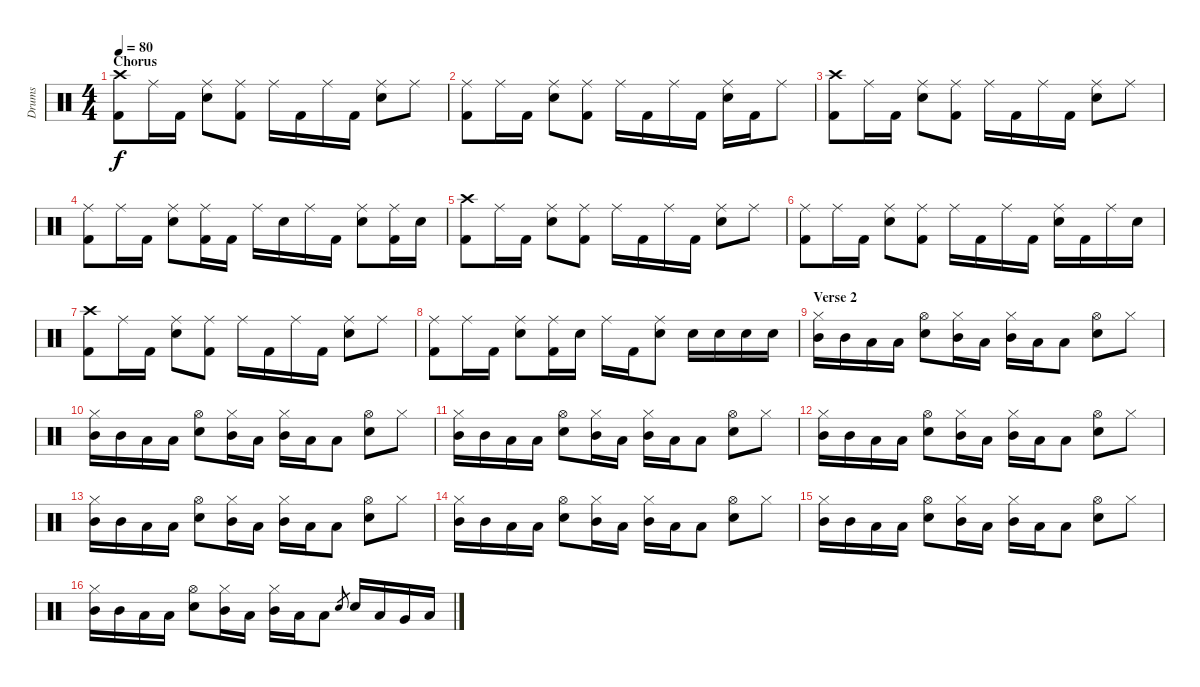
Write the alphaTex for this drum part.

\track ("Drums" "Drums") {instrument percussion}
\staff {score}
\articulation defaults
\ts (4 4)
\section ("" "Chorus")
\tempo 80
\clef neutral
\ks c
("Crash high (hit)" "Kick (hit) 2").8{dy f} "Ride (middle)".16 "Kick (hit) 2".16 ("Ride (middle)" "Snare (hit) 2").8 ("Ride (middle)" "Kick (hit) 2").8 "Ride (middle)".16 "Kick (hit) 2".16 "Ride (middle)".16 "Kick (hit) 2".16 ("Ride (middle)" "Snare (hit) 2").8 "Ride (middle)".8 |
("Ride (middle)" "Kick (hit) 2").8 "Ride (middle)".16 "Kick (hit) 2".16 ("Ride (middle)" "Snare (hit) 2").8 ("Ride (middle)" "Kick (hit) 2").8 "Ride (middle)".16 "Kick (hit) 2".16 "Ride (middle)".16 "Kick (hit) 2".16 ("Ride (middle)" "Snare (hit) 2").16 "Kick (hit) 2".16 "Ride (middle)".8 |
("Crash high (hit)" "Kick (hit) 2").8 "Ride (middle)".16 "Kick (hit) 2".16 ("Ride (middle)" "Snare (hit) 2").8 ("Ride (middle)" "Kick (hit) 2").8 "Ride (middle)".16 "Kick (hit) 2".16 "Ride (middle)".16 "Kick (hit) 2".16 ("Ride (middle)" "Snare (hit) 2").8 "Ride (middle)".8 |
("Ride (middle)" "Kick (hit) 2").8 "Ride (middle)".16 "Kick (hit) 2".16 ("Ride (middle)" "Snare (hit) 2").8 ("Ride (middle)" "Kick (hit) 2").16 "Kick (hit) 2".16 "Ride (middle)".16 "Snare (hit) 2".16 "Ride (middle)".16 "Kick (hit) 2".16 ("Ride (middle)" "Snare (hit) 2").8 ("Ride (middle)" "Kick (hit) 2").16 "Snare (hit) 2".16 |
("Crash high (hit)" "Kick (hit) 2").8 "Ride (middle)".16 "Kick (hit) 2".16 ("Ride (middle)" "Snare (hit) 2").8 ("Ride (middle)" "Kick (hit) 2").8 "Ride (middle)".16 "Kick (hit) 2".16 "Ride (middle)".16 "Kick (hit) 2".16 ("Ride (middle)" "Snare (hit) 2").8 "Ride (middle)".8 |
("Ride (middle)" "Kick (hit) 2").8 "Ride (middle)".16 "Kick (hit) 2".16 ("Ride (middle)" "Snare (hit) 2").8 ("Ride (middle)" "Kick (hit) 2").8 "Ride (middle)".16 "Kick (hit) 2".16 "Ride (middle)".16 "Kick (hit) 2".16 ("Ride (middle)" "Snare (hit) 2").16 "Kick (hit) 2".16 "Ride (middle)".16 "Snare (hit) 2".16 |
("Crash high (hit)" "Kick (hit) 2").8 "Ride (middle)".16 "Kick (hit) 2".16 ("Ride (middle)" "Snare (hit) 2").8 ("Ride (middle)" "Kick (hit) 2").8 "Ride (middle)".16 "Kick (hit) 2".16 "Ride (middle)".16 "Kick (hit) 2".16 ("Ride (middle)" "Snare (hit) 2").8 "Ride (middle)".8 |
("Ride (middle)" "Kick (hit) 2").8 "Ride (middle)".16 "Kick (hit) 2".16 ("Ride (middle)" "Snare (hit) 2").8 ("Ride (middle)" "Kick (hit) 2").16 "Snare (hit) 2".16 "Ride (middle)".16 "Kick (hit) 2".16 ("Ride (middle)" "Snare (hit) 2").8 "Snare (hit) 2".16 "Snare (hit) 2".16 "Snare (hit) 2".16 "Snare (hit) 2".16 |
\section ("" "Verse 2")
("Hi-Hat (closed)" "Mid Tom (hit)").16 "Mid Tom (hit)".16 "Low Floor Tom (hit)".16 "Low Floor Tom (hit)".16 ("Hi-Hat (open)" "Snare (hit) 2").8 ("Hi-Hat (closed)" "Mid Tom (hit)").16 "Low Floor Tom (hit)".16 ("Hi-Hat (closed)" "Mid Tom (hit)").16 "Low Floor Tom (hit)".16 "Low Floor Tom (hit)".8 ("Hi-Hat (open)" "Snare (hit) 2").8 "Hi-Hat (closed)".8 |
("Hi-Hat (closed)" "Mid Tom (hit)").16 "Mid Tom (hit)".16 "Low Floor Tom (hit)".16 "Low Floor Tom (hit)".16 ("Hi-Hat (open)" "Snare (hit) 2").8 ("Hi-Hat (closed)" "Mid Tom (hit)").16 "Low Floor Tom (hit)".16 ("Hi-Hat (closed)" "Mid Tom (hit)").16 "Low Floor Tom (hit)".16 "Low Floor Tom (hit)".8 ("Hi-Hat (open)" "Snare (hit) 2").8 "Hi-Hat (closed)".8 |
("Hi-Hat (closed)" "Mid Tom (hit)").16 "Mid Tom (hit)".16 "Low Floor Tom (hit)".16 "Low Floor Tom (hit)".16 ("Hi-Hat (open)" "Snare (hit) 2").8 ("Hi-Hat (closed)" "Mid Tom (hit)").16 "Low Floor Tom (hit)".16 ("Hi-Hat (closed)" "Mid Tom (hit)").16 "Low Floor Tom (hit)".16 "Low Floor Tom (hit)".8 ("Hi-Hat (open)" "Snare (hit) 2").8 "Hi-Hat (closed)".8 |
("Hi-Hat (closed)" "Mid Tom (hit)").16 "Mid Tom (hit)".16 "Low Floor Tom (hit)".16 "Low Floor Tom (hit)".16 ("Hi-Hat (open)" "Snare (hit) 2").8 ("Hi-Hat (closed)" "Mid Tom (hit)").16 "Low Floor Tom (hit)".16 ("Hi-Hat (closed)" "Mid Tom (hit)").16 "Low Floor Tom (hit)".16 "Low Floor Tom (hit)".8 ("Hi-Hat (open)" "Snare (hit) 2").8 "Hi-Hat (closed)".8 |
("Hi-Hat (closed)" "Mid Tom (hit)").16 "Mid Tom (hit)".16 "Low Floor Tom (hit)".16 "Low Floor Tom (hit)".16 ("Hi-Hat (open)" "Snare (hit) 2").8 ("Hi-Hat (closed)" "Mid Tom (hit)").16 "Low Floor Tom (hit)".16 ("Hi-Hat (closed)" "Mid Tom (hit)").16 "Low Floor Tom (hit)".16 "Low Floor Tom (hit)".8 ("Hi-Hat (open)" "Snare (hit) 2").8 "Hi-Hat (closed)".8 |
("Hi-Hat (closed)" "Mid Tom (hit)").16 "Mid Tom (hit)".16 "Low Floor Tom (hit)".16 "Low Floor Tom (hit)".16 ("Hi-Hat (open)" "Snare (hit) 2").8 ("Hi-Hat (closed)" "Mid Tom (hit)").16 "Low Floor Tom (hit)".16 ("Hi-Hat (closed)" "Mid Tom (hit)").16 "Low Floor Tom (hit)".16 "Low Floor Tom (hit)".8 ("Hi-Hat (open)" "Snare (hit) 2").8 "Hi-Hat (closed)".8 |
("Hi-Hat (closed)" "Mid Tom (hit)").16 "Mid Tom (hit)".16 "Low Floor Tom (hit)".16 "Low Floor Tom (hit)".16 ("Hi-Hat (open)" "Snare (hit) 2").8 ("Hi-Hat (closed)" "Mid Tom (hit)").16 "Low Floor Tom (hit)".16 ("Hi-Hat (closed)" "Mid Tom (hit)").16 "Low Floor Tom (hit)".16 "Low Floor Tom (hit)".8 ("Hi-Hat (open)" "Snare (hit) 2").8 "Hi-Hat (closed)".8 |
("Hi-Hat (closed)" "Mid Tom (hit)").16 "Mid Tom (hit)".16 "Low Floor Tom (hit)".16 "Low Floor Tom (hit)".16 ("Hi-Hat (open)" "Snare (hit) 2").8 ("Hi-Hat (closed)" "Mid Tom (hit)").16 "Low Floor Tom (hit)".16 ("Hi-Hat (closed)" "Mid Tom (hit)").16 "Low Floor Tom (hit)".16 "Low Floor Tom (hit)".8 "Snare (hit) 2".8{gr} "Snare (hit) 2".16 "Low Tom (hit)".16 "Very Low Tom (hit)".16 "Low Floor Tom (hit)".16
